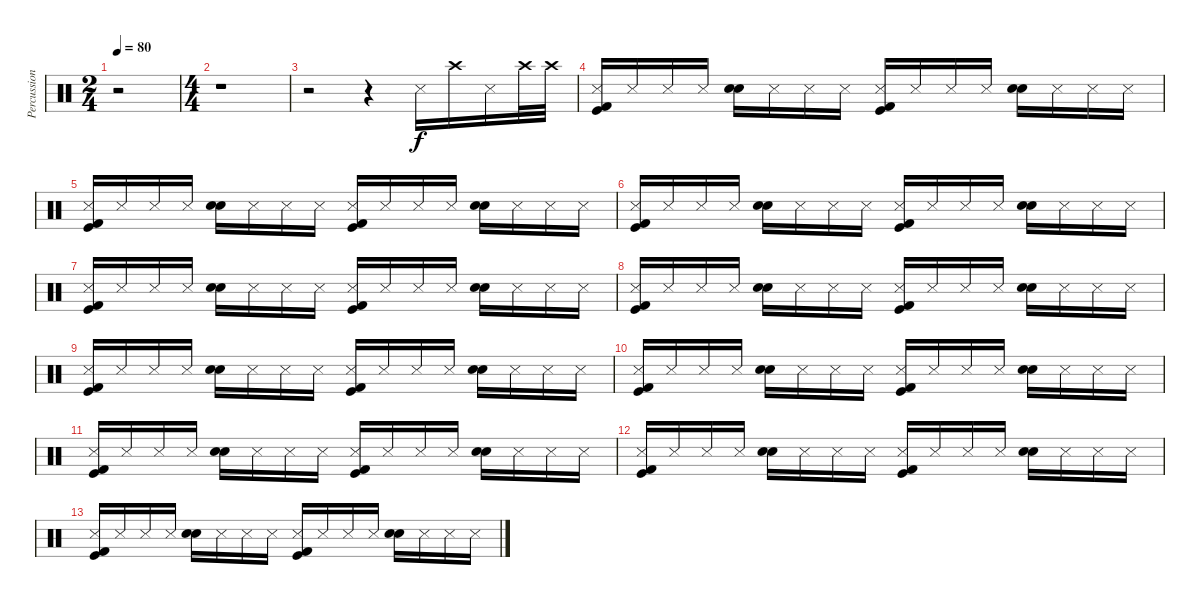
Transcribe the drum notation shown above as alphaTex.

\track ("Percussions" "Percussion") {instrument percussion}
\staff {score}
\articulation defaults
\ts (2 4)
\tempo 80
\clef neutral
\ks c
r.2{dy f} |
\ts (4 4)
r.1 |
r.2 r.4 "Snare (side stick) 3".16 "Crash high (hit)".16 "Snare (side stick) 3".16 "Crash high (hit)".32 "Crash high (hit)".32 |
("Snare (side stick) 3" "Kick (hit) 2" "Kick (hit)").16 "Snare (side stick) 3".16 "Snare (side stick) 3".16 "Snare (side stick) 3".16 ("Electric Snare (hit)" "Electric Snare (hit)").16 "Snare (side stick) 3".16 "Snare (side stick) 3".16 "Snare (side stick) 3".16 ("Snare (side stick) 3" "Kick (hit) 2" "Kick (hit)").16 "Snare (side stick) 3".16 "Snare (side stick) 3".16 "Snare (side stick) 3".16 ("Electric Snare (hit)" "Electric Snare (hit)").16 "Snare (side stick) 3".16 "Snare (side stick) 3".16 "Snare (side stick) 3".16 |
("Snare (side stick) 3" "Kick (hit) 2" "Kick (hit)").16 "Snare (side stick) 3".16 "Snare (side stick) 3".16 "Snare (side stick) 3".16 ("Electric Snare (hit)" "Electric Snare (hit)").16 "Snare (side stick) 3".16 "Snare (side stick) 3".16 "Snare (side stick) 3".16 ("Snare (side stick) 3" "Kick (hit) 2" "Kick (hit)").16 "Snare (side stick) 3".16 "Snare (side stick) 3".16 "Snare (side stick) 3".16 ("Electric Snare (hit)" "Electric Snare (hit)").16 "Snare (side stick) 3".16 "Snare (side stick) 3".16 "Snare (side stick) 3".16 |
("Snare (side stick) 3" "Kick (hit) 2" "Kick (hit)").16 "Snare (side stick) 3".16 "Snare (side stick) 3".16 "Snare (side stick) 3".16 ("Electric Snare (hit)" "Electric Snare (hit)").16 "Snare (side stick) 3".16 "Snare (side stick) 3".16 "Snare (side stick) 3".16 ("Snare (side stick) 3" "Kick (hit) 2" "Kick (hit)").16 "Snare (side stick) 3".16 "Snare (side stick) 3".16 "Snare (side stick) 3".16 ("Electric Snare (hit)" "Electric Snare (hit)").16 "Snare (side stick) 3".16 "Snare (side stick) 3".16 "Snare (side stick) 3".16 |
("Snare (side stick) 3" "Kick (hit) 2" "Kick (hit)").16 "Snare (side stick) 3".16 "Snare (side stick) 3".16 "Snare (side stick) 3".16 ("Electric Snare (hit)" "Electric Snare (hit)").16 "Snare (side stick) 3".16 "Snare (side stick) 3".16 "Snare (side stick) 3".16 ("Snare (side stick) 3" "Kick (hit) 2" "Kick (hit)").16 "Snare (side stick) 3".16 "Snare (side stick) 3".16 "Snare (side stick) 3".16 ("Electric Snare (hit)" "Electric Snare (hit)").16 "Snare (side stick) 3".16 "Snare (side stick) 3".16 "Snare (side stick) 3".16 |
("Snare (side stick) 3" "Kick (hit) 2" "Kick (hit)").16 "Snare (side stick) 3".16 "Snare (side stick) 3".16 "Snare (side stick) 3".16 ("Electric Snare (hit)" "Electric Snare (hit)").16 "Snare (side stick) 3".16 "Snare (side stick) 3".16 "Snare (side stick) 3".16 ("Snare (side stick) 3" "Kick (hit) 2" "Kick (hit)").16 "Snare (side stick) 3".16 "Snare (side stick) 3".16 "Snare (side stick) 3".16 ("Electric Snare (hit)" "Electric Snare (hit)").16 "Snare (side stick) 3".16 "Snare (side stick) 3".16 "Snare (side stick) 3".16 |
("Snare (side stick) 3" "Kick (hit) 2" "Kick (hit)").16 "Snare (side stick) 3".16 "Snare (side stick) 3".16 "Snare (side stick) 3".16 ("Electric Snare (hit)" "Electric Snare (hit)").16 "Snare (side stick) 3".16 "Snare (side stick) 3".16 "Snare (side stick) 3".16 ("Snare (side stick) 3" "Kick (hit) 2" "Kick (hit)").16 "Snare (side stick) 3".16 "Snare (side stick) 3".16 "Snare (side stick) 3".16 ("Electric Snare (hit)" "Electric Snare (hit)").16 "Snare (side stick) 3".16 "Snare (side stick) 3".16 "Snare (side stick) 3".16 |
("Snare (side stick) 3" "Kick (hit) 2" "Kick (hit)").16 "Snare (side stick) 3".16 "Snare (side stick) 3".16 "Snare (side stick) 3".16 ("Electric Snare (hit)" "Electric Snare (hit)").16 "Snare (side stick) 3".16 "Snare (side stick) 3".16 "Snare (side stick) 3".16 ("Snare (side stick) 3" "Kick (hit) 2" "Kick (hit)").16 "Snare (side stick) 3".16 "Snare (side stick) 3".16 "Snare (side stick) 3".16 ("Electric Snare (hit)" "Electric Snare (hit)").16 "Snare (side stick) 3".16 "Snare (side stick) 3".16 "Snare (side stick) 3".16 |
("Snare (side stick) 3" "Kick (hit) 2" "Kick (hit)").16 "Snare (side stick) 3".16 "Snare (side stick) 3".16 "Snare (side stick) 3".16 ("Electric Snare (hit)" "Electric Snare (hit)").16 "Snare (side stick) 3".16 "Snare (side stick) 3".16 "Snare (side stick) 3".16 ("Snare (side stick) 3" "Kick (hit) 2" "Kick (hit)").16 "Snare (side stick) 3".16 "Snare (side stick) 3".16 "Snare (side stick) 3".16 ("Electric Snare (hit)" "Electric Snare (hit)").16 "Snare (side stick) 3".16 "Snare (side stick) 3".16 "Snare (side stick) 3".16 |
("Snare (side stick) 3" "Kick (hit) 2" "Kick (hit)").16 "Snare (side stick) 3".16 "Snare (side stick) 3".16 "Snare (side stick) 3".16 ("Electric Snare (hit)" "Electric Snare (hit)").16 "Snare (side stick) 3".16 "Snare (side stick) 3".16 "Snare (side stick) 3".16 ("Snare (side stick) 3" "Kick (hit) 2" "Kick (hit)").16 "Snare (side stick) 3".16 "Snare (side stick) 3".16 "Snare (side stick) 3".16 ("Electric Snare (hit)" "Electric Snare (hit)").16 "Snare (side stick) 3".16 "Snare (side stick) 3".16 "Snare (side stick) 3".16 |
("Snare (side stick) 3" "Kick (hit) 2" "Kick (hit)").16 "Snare (side stick) 3".16 "Snare (side stick) 3".16 "Snare (side stick) 3".16 ("Electric Snare (hit)" "Electric Snare (hit)").16 "Snare (side stick) 3".16 "Snare (side stick) 3".16 "Snare (side stick) 3".16 ("Snare (side stick) 3" "Kick (hit) 2" "Kick (hit)").16 "Snare (side stick) 3".16 "Snare (side stick) 3".16 "Snare (side stick) 3".16 ("Electric Snare (hit)" "Electric Snare (hit)").16 "Snare (side stick) 3".16 "Snare (side stick) 3".16 "Snare (side stick) 3".16
